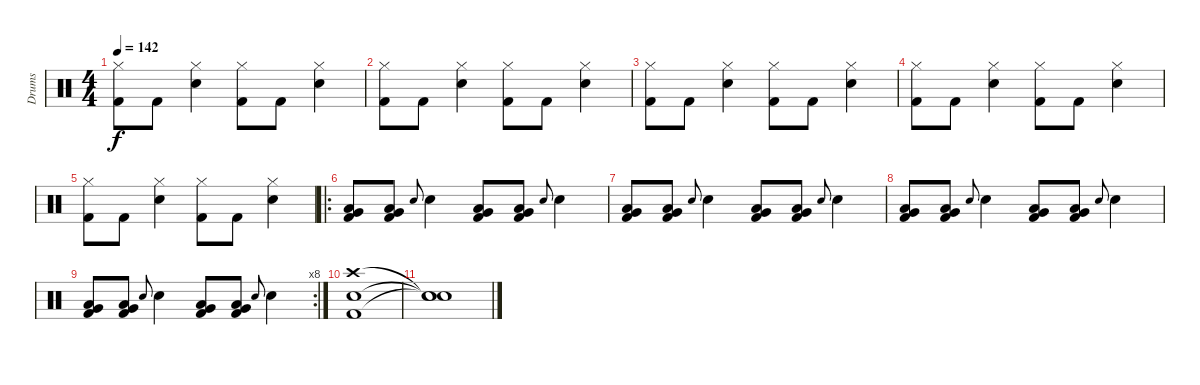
\track ("Drums" "Drums") {instrument percussion}
\staff {score}
\articulation defaults
\ts (4 4)
\tempo 142
\clef neutral
\ks c
("Hi-Hat (closed)" "Kick (hit) 2").8{dy f} "Kick (hit) 2".8 ("Hi-Hat (closed)" "Snare (hit) 2").4 ("Hi-Hat (closed)" "Kick (hit) 2").8 "Kick (hit) 2".8 ("Hi-Hat (closed)" "Snare (hit) 2").4 |
("Hi-Hat (closed)" "Kick (hit) 2").8 "Kick (hit) 2".8 ("Hi-Hat (closed)" "Snare (hit) 2").4 ("Hi-Hat (closed)" "Kick (hit) 2").8 "Kick (hit) 2".8 ("Hi-Hat (closed)" "Snare (hit) 2").4 |
("Hi-Hat (closed)" "Kick (hit) 2").8 "Kick (hit) 2".8 ("Hi-Hat (closed)" "Snare (hit) 2").4 ("Hi-Hat (closed)" "Kick (hit) 2").8 "Kick (hit) 2".8 ("Hi-Hat (closed)" "Snare (hit) 2").4 |
("Hi-Hat (closed)" "Kick (hit) 2").8 "Kick (hit) 2".8 ("Hi-Hat (closed)" "Snare (hit) 2").4 ("Hi-Hat (closed)" "Kick (hit) 2").8 "Kick (hit) 2".8 ("Hi-Hat (closed)" "Snare (hit) 2").4 |
("Hi-Hat (closed)" "Kick (hit) 2").8 "Kick (hit) 2".8 ("Hi-Hat (closed)" "Snare (hit) 2").4 ("Hi-Hat (closed)" "Kick (hit) 2").8 "Kick (hit) 2".8 ("Hi-Hat (closed)" "Snare (hit) 2").4 |
\ro
("Low Tom (hit)" "Very Low Tom (hit)" "Kick (hit) 2").8 ("Low Tom (hit)" "Very Low Tom (hit)" "Kick (hit) 2").8 "Snare (hit) 2".8{gr onbeat} "Snare (hit) 2".4 ("Low Tom (hit)" "Very Low Tom (hit)" "Kick (hit) 2").8 ("Low Tom (hit)" "Very Low Tom (hit)" "Kick (hit) 2").8 "Snare (hit) 2".8{gr onbeat} "Snare (hit) 2".4 |
("Low Tom (hit)" "Very Low Tom (hit)" "Kick (hit) 2").8 ("Low Tom (hit)" "Very Low Tom (hit)" "Kick (hit) 2").8 "Snare (hit) 2".8{gr onbeat} "Snare (hit) 2".4 ("Low Tom (hit)" "Very Low Tom (hit)" "Kick (hit) 2").8 ("Low Tom (hit)" "Very Low Tom (hit)" "Kick (hit) 2").8 "Snare (hit) 2".8{gr onbeat} "Snare (hit) 2".4 |
("Low Tom (hit)" "Very Low Tom (hit)" "Kick (hit) 2").8 ("Low Tom (hit)" "Very Low Tom (hit)" "Kick (hit) 2").8 "Snare (hit) 2".8{gr onbeat} "Snare (hit) 2".4 ("Low Tom (hit)" "Very Low Tom (hit)" "Kick (hit) 2").8 ("Low Tom (hit)" "Very Low Tom (hit)" "Kick (hit) 2").8 "Snare (hit) 2".8{gr onbeat} "Snare (hit) 2".4 |
\rc 8
("Low Tom (hit)" "Very Low Tom (hit)" "Kick (hit) 2").8 ("Low Tom (hit)" "Very Low Tom (hit)" "Kick (hit) 2").8 "Snare (hit) 2".8{gr onbeat} "Snare (hit) 2".4 ("Low Tom (hit)" "Very Low Tom (hit)" "Kick (hit) 2").8 ("Low Tom (hit)" "Very Low Tom (hit)" "Kick (hit) 2").8 "Snare (hit) 2".8{gr onbeat} "Snare (hit) 2".4 |
("Crash high (hit)" "Snare (hit) 2" "Kick (hit) 2").1 |
("Snare (hit)"{t} "Snare (hit)"{t} "Snare (hit)"{t}).1
